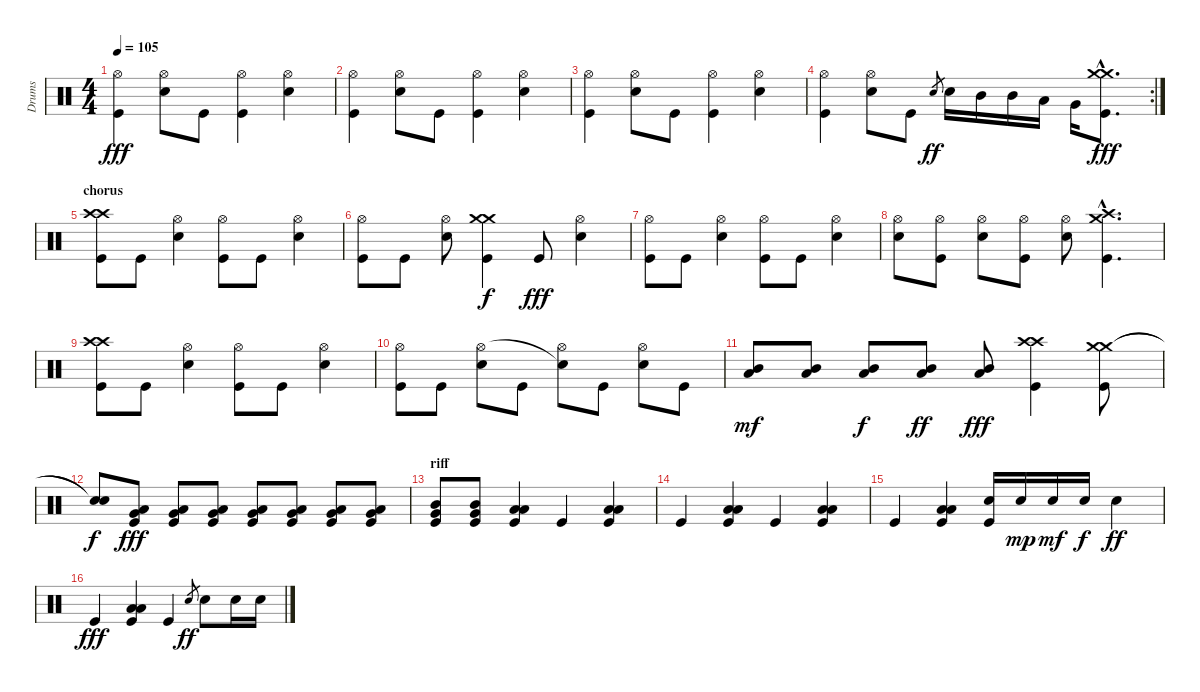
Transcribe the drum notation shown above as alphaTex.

\track ("Drums" "Drums") {instrument percussion}
\staff {score}
\articulation defaults
\ts (4 4)
\tempo 105
\clef neutral
\ks c
("Hi-Hat (open)" "Kick (hit)").4{dy fff} ("Electric Snare (hit)" "Hi-Hat (open)").8 "Kick (hit)".8 ("Hi-Hat (open)" "Kick (hit)").4 ("Electric Snare (hit)" "Hi-Hat (open)").4 |
("Hi-Hat (open)" "Kick (hit)").4 ("Electric Snare (hit)" "Hi-Hat (open)").8 "Kick (hit)".8 ("Hi-Hat (open)" "Kick (hit)").4 ("Electric Snare (hit)" "Hi-Hat (open)").4 |
("Hi-Hat (open)" "Kick (hit)").4 ("Electric Snare (hit)" "Hi-Hat (open)").8 "Kick (hit)".8 ("Hi-Hat (open)" "Kick (hit)").4 ("Electric Snare (hit)" "Hi-Hat (open)").4 |
\rc 2
("Hi-Hat (open)" "Kick (hit)").4 ("Electric Snare (hit)" "Hi-Hat (open)").8 "Kick (hit)".8 "Electric Snare (hit)".8{gr dy ff} "Electric Snare (hit)".16 "Mid Tom (hit)".16 "Mid Tom (hit)".16 "Low Tom (hit)".16 "Very Low Tom (hit)".16 ("Crash medium (hit)"{hac} "Crash medium (hit)"{hac} "Kick (hit)"{hac}).8{d dy fff} |
\section ("" "chorus")
("Crash high (hit)" "Crash high (hit)" "Kick (hit)").8 "Kick (hit)".8 ("Electric Snare (hit)" "Hi-Hat (open)").4 ("Hi-Hat (open)" "Kick (hit)").8 "Kick (hit)".8 ("Electric Snare (hit)" "Hi-Hat (open)").4 |
("Hi-Hat (open)" "Kick (hit)").8 "Kick (hit)".8 ("Electric Snare (hit)" "Hi-Hat (open)").8 ("Crash medium (hit)" "Crash medium (hit)" "Kick (hit)").4{dy f} "Kick (hit)".8{dy fff} ("Electric Snare (hit)" "Hi-Hat (open)").4 |
("Hi-Hat (open)" "Kick (hit)").8 "Kick (hit)".8 ("Electric Snare (hit)" "Hi-Hat (open)").4 ("Hi-Hat (open)" "Kick (hit)").8 "Kick (hit)".8 ("Electric Snare (hit)" "Hi-Hat (open)").4 |
("Electric Snare (hit)" "Hi-Hat (open)").8 ("Hi-Hat (open)" "Kick (hit)").8 ("Electric Snare (hit)" "Hi-Hat (open)").8 ("Hi-Hat (open)" "Kick (hit)").8 ("Electric Snare (hit)" "Hi-Hat (open)").8 ("Crash high (hit)"{hac} "Crash medium (hit)"{hac} "Kick (hit)"{hac}).4{d} |
("Crash high (hit)" "Crash high (hit)" "Kick (hit)").8 "Kick (hit)".8 ("Electric Snare (hit)" "Hi-Hat (open)").4 ("Hi-Hat (open)" "Kick (hit)").8 "Kick (hit)".8 ("Electric Snare (hit)" "Hi-Hat (open)").4 |
("Hi-Hat (open)" "Kick (hit)").8 "Kick (hit)".8 ("Electric Snare (hit)" "Hi-Hat (open)").8 "Kick (hit)".8 ("Hi-Hat (open)" "Snare (hit)"{t}).8 "Kick (hit)".8 ("Electric Snare (hit)" "Hi-Hat (open)").8 "Kick (hit)".8 |
("Mid Tom (hit)" "Low Tom (hit)").8{dy mf} ("Mid Tom (hit)" "Low Tom (hit)").8 ("Mid Tom (hit)" "Low Tom (hit)").8{dy f} ("Mid Tom (hit)" "Low Tom (hit)").8{dy ff} ("Mid Tom (hit)" "Low Tom (hit)").8{dy fff} ("Crash high (hit)" "Crash high (hit)" "Kick (hit)").4 ("Crash medium (hit)" "Crash medium (hit)" "Kick (hit)").8 |
("Snare (hit)"{t} "Snare (hit)"{t}).8{dy f} ("Low Tom (hit)" "Very Low Tom (hit)" "Kick (hit)").8{dy fff} ("Low Tom (hit)" "Very Low Tom (hit)" "Kick (hit)").8 ("Low Tom (hit)" "Very Low Tom (hit)" "Kick (hit)").8 ("Low Tom (hit)" "Very Low Tom (hit)" "Kick (hit)").8 ("Low Tom (hit)" "Very Low Tom (hit)" "Kick (hit)").8 ("Low Tom (hit)" "Very Low Tom (hit)" "Kick (hit)").8 ("Low Tom (hit)" "Very Low Tom (hit)" "Kick (hit)").8 |
\section ("" "riff")
("Mid Tom (hit)" "Very Low Tom (hit)" "Kick (hit)").8 ("Mid Tom (hit)" "Very Low Tom (hit)" "Kick (hit)").8 ("Low Tom (hit)" "Low Floor Tom (hit)" "Kick (hit)").4 "Kick (hit)".4 ("Low Tom (hit)" "Low Floor Tom (hit)" "Kick (hit)").4 |
"Kick (hit)".4 ("Low Tom (hit)" "Low Floor Tom (hit)" "Kick (hit)").4 "Kick (hit)".4 ("Low Tom (hit)" "Low Floor Tom (hit)" "Kick (hit)").4 |
"Kick (hit)".4 ("Low Tom (hit)" "Low Floor Tom (hit)" "Kick (hit)").4 ("Electric Snare (hit)" "Kick (hit)").16 "Electric Snare (hit)".16{dy mp} "Electric Snare (hit)".16{dy mf} "Electric Snare (hit)".16{dy f} "Electric Snare (hit)".4{dy ff} |
"Kick (hit)".4{dy fff} ("Low Tom (hit)" "Low Floor Tom (hit)" "Kick (hit)").4 "Kick (hit)".4 "Electric Snare (hit)".8{gr dy ff} "Electric Snare (hit)".8 "Electric Snare (hit)".16 "Electric Snare (hit)".16
